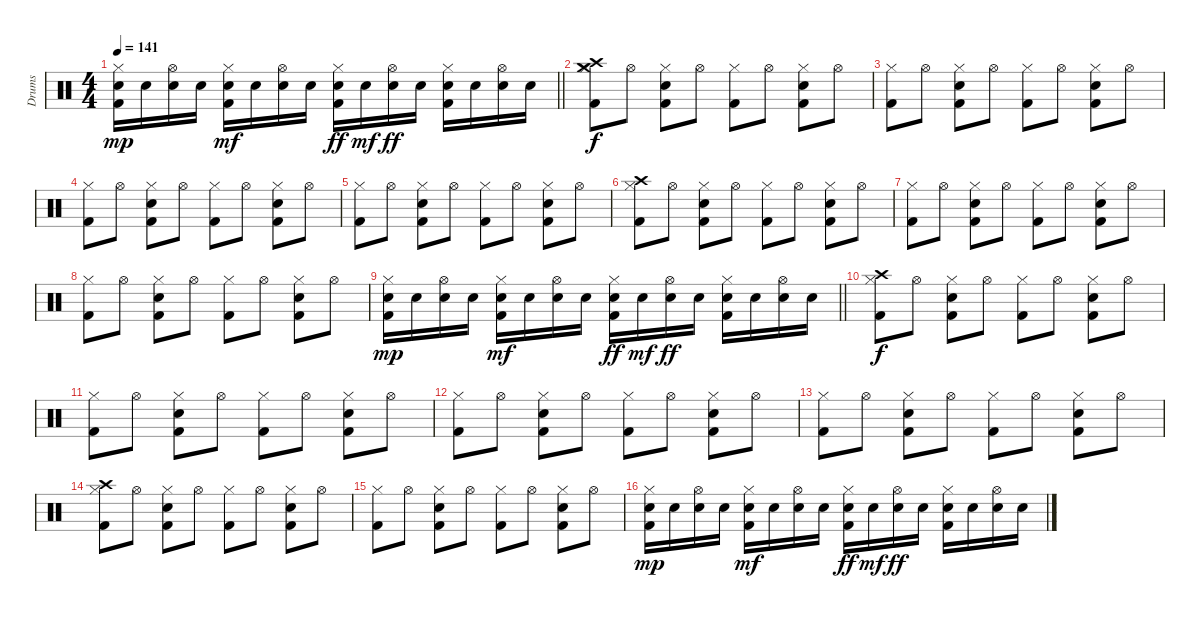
\track ("Drums" "Drums") {instrument percussion}
\staff {score}
\articulation defaults
\ts (4 4)
\tempo 141
\clef neutral
\barLineRight lightlight
\ks c
("Hi-Hat (closed)" "Snare (hit) 2" "Kick (hit) 2").16{dy mp} "Snare (hit) 2".16 ("Hi-Hat (open)" "Snare (hit) 2").16 "Snare (hit) 2".16 ("Hi-Hat (closed)" "Snare (hit) 2" "Kick (hit) 2").16{dy mf} "Snare (hit) 2".16 ("Hi-Hat (open)" "Snare (hit) 2").16 "Snare (hit) 2".16 ("Hi-Hat (closed)" "Snare (hit) 2" "Kick (hit) 2").16{dy ff} "Snare (hit) 2".16{dy mf} ("Hi-Hat (open)" "Snare (hit) 2").16{dy ff} "Snare (hit) 2".16 ("Hi-Hat (closed)" "Snare (hit) 2" "Kick (hit) 2").16 "Snare (hit) 2".16 ("Hi-Hat (open)" "Snare (hit) 2").16 "Snare (hit) 2".16 |
("Hi-Hat (closed)" "Crash high (hit)" "Crash medium (hit)" "Kick (hit) 2").8{dy f} "Hi-Hat (open)".8 ("Hi-Hat (closed)" "Snare (hit) 2" "Kick (hit) 2").8 "Hi-Hat (open)".8 ("Hi-Hat (closed)" "Kick (hit) 2").8 "Hi-Hat (open)".8 ("Hi-Hat (closed)" "Snare (hit) 2" "Kick (hit) 2").8 "Hi-Hat (open)".8 |
("Hi-Hat (closed)" "Kick (hit) 2").8 "Hi-Hat (open)".8 ("Hi-Hat (closed)" "Snare (hit) 2" "Kick (hit) 2").8 "Hi-Hat (open)".8 ("Hi-Hat (closed)" "Kick (hit) 2").8 "Hi-Hat (open)".8 ("Hi-Hat (closed)" "Snare (hit) 2" "Kick (hit) 2").8 "Hi-Hat (open)".8 |
("Hi-Hat (closed)" "Kick (hit) 2").8 "Hi-Hat (open)".8 ("Hi-Hat (closed)" "Snare (hit) 2" "Kick (hit) 2").8 "Hi-Hat (open)".8 ("Hi-Hat (closed)" "Kick (hit) 2").8 "Hi-Hat (open)".8 ("Hi-Hat (closed)" "Snare (hit) 2" "Kick (hit) 2").8 "Hi-Hat (open)".8 |
("Hi-Hat (closed)" "Kick (hit) 2").8 "Hi-Hat (open)".8 ("Hi-Hat (closed)" "Snare (hit) 2" "Kick (hit) 2").8 "Hi-Hat (open)".8 ("Hi-Hat (closed)" "Kick (hit) 2").8 "Hi-Hat (open)".8 ("Hi-Hat (closed)" "Snare (hit) 2" "Kick (hit) 2").8 "Hi-Hat (open)".8 |
("Hi-Hat (closed)" "Crash high (hit)" "Kick (hit) 2").8 "Hi-Hat (open)".8 ("Hi-Hat (closed)" "Snare (hit) 2" "Kick (hit) 2").8 "Hi-Hat (open)".8 ("Hi-Hat (closed)" "Kick (hit) 2").8 "Hi-Hat (open)".8 ("Hi-Hat (closed)" "Snare (hit) 2" "Kick (hit) 2").8 "Hi-Hat (open)".8 |
("Hi-Hat (closed)" "Kick (hit) 2").8 "Hi-Hat (open)".8 ("Hi-Hat (closed)" "Snare (hit) 2" "Kick (hit) 2").8 "Hi-Hat (open)".8 ("Hi-Hat (closed)" "Kick (hit) 2").8 "Hi-Hat (open)".8 ("Hi-Hat (closed)" "Snare (hit) 2" "Kick (hit) 2").8 "Hi-Hat (open)".8 |
("Hi-Hat (closed)" "Kick (hit) 2").8 "Hi-Hat (open)".8 ("Hi-Hat (closed)" "Snare (hit) 2" "Kick (hit) 2").8 "Hi-Hat (open)".8 ("Hi-Hat (closed)" "Kick (hit) 2").8 "Hi-Hat (open)".8 ("Hi-Hat (closed)" "Snare (hit) 2" "Kick (hit) 2").8 "Hi-Hat (open)".8 |
\barLineRight lightlight
("Hi-Hat (closed)" "Snare (hit) 2" "Kick (hit) 2").16{dy mp} "Snare (hit) 2".16 ("Hi-Hat (open)" "Snare (hit) 2").16 "Snare (hit) 2".16 ("Hi-Hat (closed)" "Snare (hit) 2" "Kick (hit) 2").16{dy mf} "Snare (hit) 2".16 ("Hi-Hat (open)" "Snare (hit) 2").16 "Snare (hit) 2".16 ("Hi-Hat (closed)" "Snare (hit) 2" "Kick (hit) 2").16{dy ff} "Snare (hit) 2".16{dy mf} ("Hi-Hat (open)" "Snare (hit) 2").16{dy ff} "Snare (hit) 2".16 ("Hi-Hat (closed)" "Snare (hit) 2" "Kick (hit) 2").16 "Snare (hit) 2".16 ("Hi-Hat (open)" "Snare (hit) 2").16 "Snare (hit) 2".16 |
("Hi-Hat (closed)" "Crash high (hit)" "Kick (hit) 2").8{dy f} "Hi-Hat (open)".8 ("Hi-Hat (closed)" "Snare (hit) 2" "Kick (hit) 2").8 "Hi-Hat (open)".8 ("Hi-Hat (closed)" "Kick (hit) 2").8 "Hi-Hat (open)".8 ("Hi-Hat (closed)" "Snare (hit) 2" "Kick (hit) 2").8 "Hi-Hat (open)".8 |
("Hi-Hat (closed)" "Kick (hit) 2").8 "Hi-Hat (open)".8 ("Hi-Hat (closed)" "Snare (hit) 2" "Kick (hit) 2").8 "Hi-Hat (open)".8 ("Hi-Hat (closed)" "Kick (hit) 2").8 "Hi-Hat (open)".8 ("Hi-Hat (closed)" "Snare (hit) 2" "Kick (hit) 2").8 "Hi-Hat (open)".8 |
("Hi-Hat (closed)" "Kick (hit) 2").8 "Hi-Hat (open)".8 ("Hi-Hat (closed)" "Snare (hit) 2" "Kick (hit) 2").8 "Hi-Hat (open)".8 ("Hi-Hat (closed)" "Kick (hit) 2").8 "Hi-Hat (open)".8 ("Hi-Hat (closed)" "Snare (hit) 2" "Kick (hit) 2").8 "Hi-Hat (open)".8 |
("Hi-Hat (closed)" "Kick (hit) 2").8 "Hi-Hat (open)".8 ("Hi-Hat (closed)" "Snare (hit) 2" "Kick (hit) 2").8 "Hi-Hat (open)".8 ("Hi-Hat (closed)" "Kick (hit) 2").8 "Hi-Hat (open)".8 ("Hi-Hat (closed)" "Snare (hit) 2" "Kick (hit) 2").8 "Hi-Hat (open)".8 |
("Hi-Hat (closed)" "Crash high (hit)" "Kick (hit) 2").8 "Hi-Hat (open)".8 ("Hi-Hat (closed)" "Snare (hit) 2" "Kick (hit) 2").8 "Hi-Hat (open)".8 ("Hi-Hat (closed)" "Kick (hit) 2").8 "Hi-Hat (open)".8 ("Hi-Hat (closed)" "Snare (hit) 2" "Kick (hit) 2").8 "Hi-Hat (open)".8 |
("Hi-Hat (closed)" "Kick (hit) 2").8 "Hi-Hat (open)".8 ("Hi-Hat (closed)" "Snare (hit) 2" "Kick (hit) 2").8 "Hi-Hat (open)".8 ("Hi-Hat (closed)" "Kick (hit) 2").8 "Hi-Hat (open)".8 ("Hi-Hat (closed)" "Snare (hit) 2" "Kick (hit) 2").8 "Hi-Hat (open)".8 |
("Hi-Hat (closed)" "Snare (hit) 2" "Kick (hit) 2").16{dy mp} "Snare (hit) 2".16 ("Hi-Hat (open)" "Snare (hit) 2").16 "Snare (hit) 2".16 ("Hi-Hat (closed)" "Snare (hit) 2" "Kick (hit) 2").16{dy mf} "Snare (hit) 2".16 ("Hi-Hat (open)" "Snare (hit) 2").16 "Snare (hit) 2".16 ("Hi-Hat (closed)" "Snare (hit) 2" "Kick (hit) 2").16{dy ff} "Snare (hit) 2".16{dy mf} ("Hi-Hat (open)" "Snare (hit) 2").16{dy ff} "Snare (hit) 2".16 ("Hi-Hat (closed)" "Snare (hit) 2" "Kick (hit) 2").16 "Snare (hit) 2".16 ("Hi-Hat (open)" "Snare (hit) 2").16 "Snare (hit) 2".16
